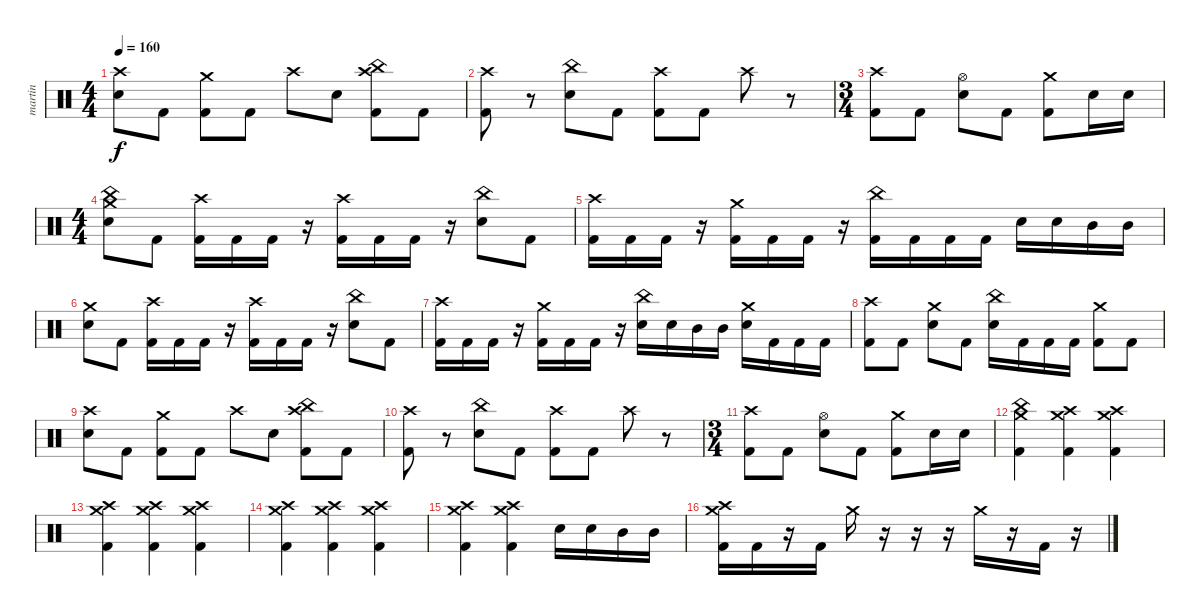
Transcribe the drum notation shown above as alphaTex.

\track ("martin" "martin") {instrument percussion}
\staff {score}
\articulation defaults
\ts (4 4)
\tempo 160
\clef neutral
\ks c
("Crash high (hit)" "Electric Snare (hit)").8{dy f} "Kick (hit) 2".8 ("Crash medium (hit)" "Kick (hit) 2").8 "Kick (hit) 2".8 "Crash high (hit)".8 "Electric Snare (hit)".8 ("China (hit)" "Crash high (hit)" "Kick (hit) 2").8 "Kick (hit) 2".8 |
("Crash high (hit)" "Kick (hit) 2").8 r.8 ("China (hit)" "Electric Snare (hit)").8 "Kick (hit) 2".8 ("Crash high (hit)" "Kick (hit) 2").8 "Kick (hit) 2".8 "Crash high (hit)".8 r.8 |
\ts (3 4)
("Crash high (hit)" "Kick (hit) 2").8 "Kick (hit) 2".8 ("Hi-Hat (open)" "Electric Snare (hit)").8 "Kick (hit) 2".8 ("Crash medium (hit)" "Kick (hit) 2").8 "Electric Snare (hit)".16 "Electric Snare (hit)".16 |
\ts (4 4)
("Crash medium (hit)" "China (hit)" "Electric Snare (hit)").8 "Kick (hit) 2".8 ("Crash high (hit)" "Kick (hit) 2").16 "Kick (hit) 2".16 "Kick (hit) 2".16 r.16 ("Crash high (hit)" "Kick (hit) 2").16 "Kick (hit) 2".16 "Kick (hit) 2".16 r.16 ("China (hit)" "Electric Snare (hit)").8 "Kick (hit) 2".8 |
("Crash high (hit)" "Kick (hit) 2").16 "Kick (hit) 2".16 "Kick (hit) 2".16 r.16 ("Crash medium (hit)" "Kick (hit) 2").16 "Kick (hit) 2".16 "Kick (hit) 2".16 r.16 ("China (hit)" "Kick (hit) 2").16 "Kick (hit) 2".16 "Kick (hit) 2".16 "Kick (hit) 2".16 "Electric Snare (hit)".16 "Electric Snare (hit)".16 "Mid Tom (hit)".16 "Mid Tom (hit)".16 |
("Crash medium (hit)" "Electric Snare (hit)").8 "Kick (hit) 2".8 ("Crash high (hit)" "Kick (hit) 2").16 "Kick (hit) 2".16 "Kick (hit) 2".16 r.16 ("Crash high (hit)" "Kick (hit) 2").16 "Kick (hit) 2".16 "Kick (hit) 2".16 r.16 ("China (hit)" "Electric Snare (hit)").8 "Kick (hit) 2".8 |
("Crash high (hit)" "Kick (hit) 2").16 "Kick (hit) 2".16 "Kick (hit) 2".16 r.16 ("Crash medium (hit)" "Kick (hit) 2").16 "Kick (hit) 2".16 "Kick (hit) 2".16 r.16 ("China (hit)" "Electric Snare (hit)").16 "Electric Snare (hit)".16 "Mid Tom (hit)".16 "Mid Tom (hit)".16 ("Crash medium (hit)" "Electric Snare (hit)").16 "Kick (hit) 2".16 "Kick (hit) 2".16 "Kick (hit) 2".16 |
("Crash high (hit)" "Kick (hit) 2").8 "Kick (hit) 2".8 ("Crash medium (hit)" "Electric Snare (hit)").8 "Kick (hit) 2".8 ("China (hit)" "Electric Snare (hit)").16 "Kick (hit) 2".16 "Kick (hit) 2".16 "Kick (hit) 2".16 ("Crash medium (hit)" "Kick (hit) 2").8 "Kick (hit) 2".8 |
("Crash high (hit)" "Electric Snare (hit)").8 "Kick (hit) 2".8 ("Crash medium (hit)" "Kick (hit) 2").8 "Kick (hit) 2".8 "Crash high (hit)".8 "Electric Snare (hit)".8 ("China (hit)" "Crash high (hit)" "Kick (hit) 2").8 "Kick (hit) 2".8 |
("Crash high (hit)" "Kick (hit) 2").8 r.8 ("China (hit)" "Electric Snare (hit)").8 "Kick (hit) 2".8 ("Crash high (hit)" "Kick (hit) 2").8 "Kick (hit) 2".8 "Crash high (hit)".8 r.8 |
\ts (3 4)
("Crash high (hit)" "Kick (hit) 2").8 "Kick (hit) 2".8 ("Hi-Hat (open)" "Electric Snare (hit)").8 "Kick (hit) 2".8 ("Crash medium (hit)" "Kick (hit) 2").8 "Electric Snare (hit)".16 "Electric Snare (hit)".16 |
("Crash medium (hit)" "China (hit)" "Kick (hit) 2").4 ("Crash medium (hit)" "Crash high (hit)" "Kick (hit) 2").4 ("Crash medium (hit)" "Crash high (hit)" "Kick (hit) 2").4 |
("Crash medium (hit)" "Crash high (hit)" "Kick (hit) 2").4 ("Crash medium (hit)" "Crash high (hit)" "Kick (hit) 2").4 ("Crash medium (hit)" "Crash high (hit)" "Kick (hit) 2").4 |
("Crash medium (hit)" "Crash high (hit)" "Kick (hit) 2").4 ("Crash medium (hit)" "Crash high (hit)" "Kick (hit) 2").4 ("Crash medium (hit)" "Crash high (hit)" "Kick (hit) 2").4 |
("Crash medium (hit)" "Crash high (hit)" "Kick (hit) 2").4 ("Crash medium (hit)" "Crash high (hit)" "Kick (hit) 2").4 "Electric Snare (hit)".16 "Electric Snare (hit)".16 "Mid Tom (hit)".16 "Mid Tom (hit)".16 |
("Crash medium (hit)" "Crash high (hit)" "Kick (hit) 2").16 "Kick (hit) 2".16 r.16 "Kick (hit) 2".16 "Crash medium (hit)".16 r.16 r.16 r.16 "Crash medium (hit)".16 r.16 "Kick (hit) 2".16 r.16
